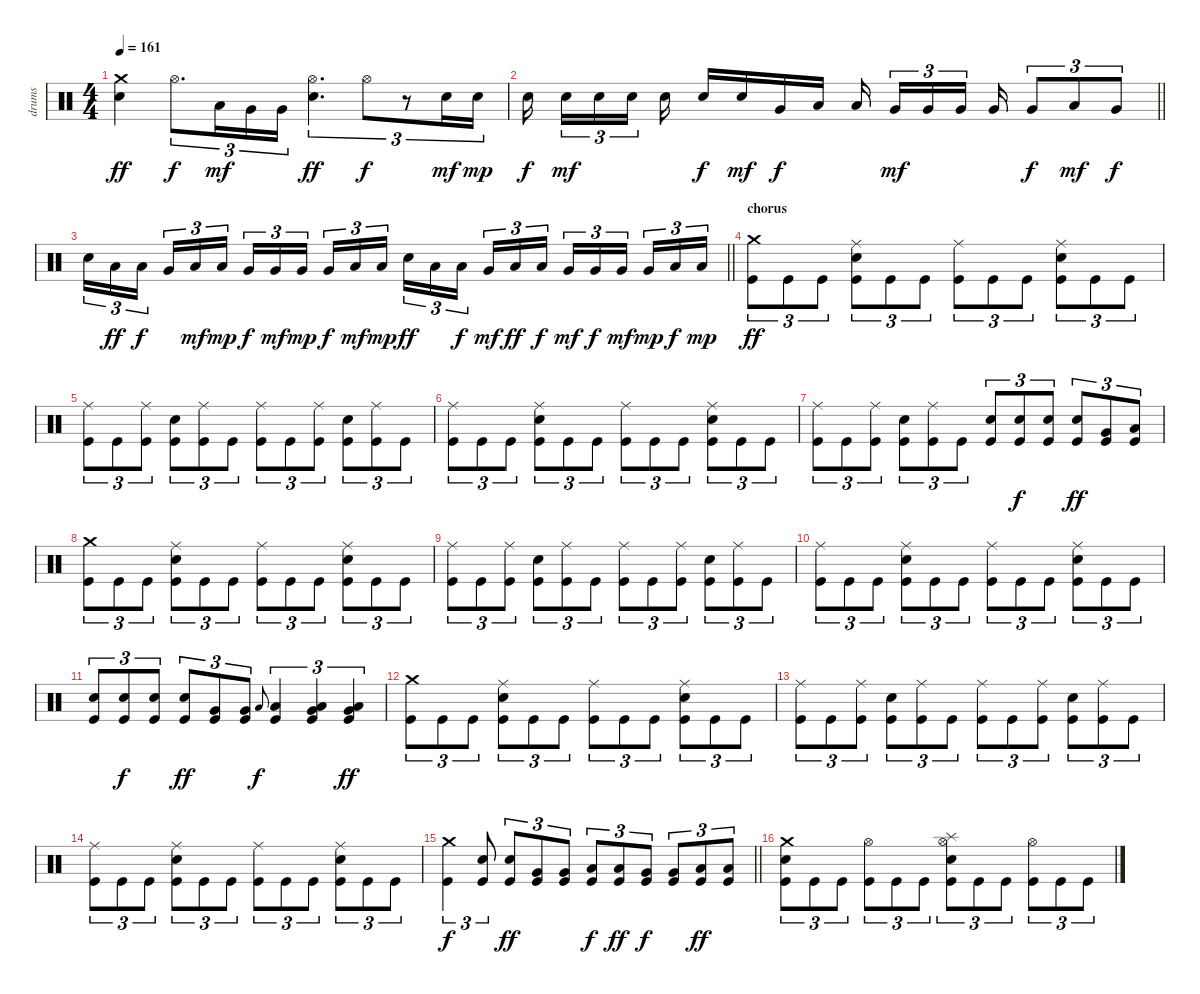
\track ("drums" "drums") {instrument percussion}
\staff {score}
\articulation defaults
\ts (4 4)
\tempo 161
\clef neutral
\ks c
("Crash medium (hit)" "Electric Snare (hit)").4{dy ff} "Hi-Hat (open)".8{d tu (3 2) dy f} "Low Tom (hit)".16{tu (3 2) dy mf} "Very Low Tom (hit)".16{tu (3 2)} "Very Low Tom (hit)".16{tu (3 2)} ("Hi-Hat (open)" "Electric Snare (hit)").4{d tu (3 2) dy ff} "Hi-Hat (open)".8{tu (3 2) dy f} r.8{tu (3 2)} "Electric Snare (hit)".16{tu (3 2) dy mf} "Electric Snare (hit)".16{tu (3 2) dy mp} |
\barLineRight lightlight "Electric Snare (hit)".16{dy f beam splitsecondary} "Electric Snare (hit)".16{tu (3 2) dy mf} "Electric Snare (hit)".16{tu (3 2)} "Electric Snare (hit)".16{tu (3 2) beam splitsecondary} "Electric Snare (hit)".16 "Electric Snare (hit)".16{dy f} "Electric Snare (hit)".16{dy mf} "Very Low Tom (hit)".16{dy f} "Low Floor Tom (hit)".16 "Low Tom (hit)".16{beam splitsecondary} "Very Low Tom (hit)".16{tu (3 2) dy mf} "Very Low Tom (hit)".16{tu (3 2)} "Very Low Tom (hit)".16{tu (3 2) beam splitsecondary} "Very Low Tom (hit)".16 "Very Low Tom (hit)".8{tu (3 2) dy f} "Low Floor Tom (hit)".8{tu (3 2) dy mf} "Very Low Tom (hit)".8{tu (3 2) dy f}
|
\barLineRight lightlight "Electric Snare (hit)".16{tu (3 2)} "Low Tom (hit)".16{tu (3 2) dy ff} "Low Tom (hit)".16{tu (3 2) dy f beam splitsecondary} "Very Low Tom (hit)".16{tu (3 2)} "Low Tom (hit)".16{tu (3 2) dy mf} "Low Tom (hit)".16{tu (3 2) dy mp} "Very Low Tom (hit)".16{tu (3 2) dy f} "Very Low Tom (hit)".16{tu (3 2) dy mf} "Very Low Tom (hit)".16{tu (3 2) dy mp beam splitsecondary} "Very Low Tom (hit)".16{tu (3 2) dy f} "Low Floor Tom (hit)".16{tu (3 2) dy mf} "Low Floor Tom (hit)".16{tu (3 2) dy mp} "Electric Snare (hit)".16{tu (3 2) dy ff} "Low Tom (hit)".16{tu (3 2)} "Low Tom (hit)".16{tu (3 2) dy f beam splitsecondary} "Very Low Tom (hit)".16{tu (3 2) dy mf} "Low Tom (hit)".16{tu (3 2) dy ff} "Low Tom (hit)".16{tu (3 2) dy f} "Very Low Tom (hit)".16{tu (3 2) dy mf} "Very Low Tom (hit)".16{tu (3 2) dy f} "Very Low Tom (hit)".16{tu (3 2) dy mf beam splitsecondary} "Very Low Tom (hit)".16{tu (3 2) dy mp} "Low Floor Tom (hit)".16{tu (3 2) dy f} "Low Floor Tom (hit)".16{tu (3 2) dy mp}
|
\section ("" "chorus")
("Crash medium (hit)" "Kick (hit)").8{tu (3 2) dy ff} "Kick (hit)".8{tu (3 2)} "Kick (hit)".8{tu (3 2)} ("Ride (middle)" "Electric Snare (hit)" "Kick (hit)").8{tu (3 2)} "Kick (hit)".8{tu (3 2)} "Kick (hit)".8{tu (3 2)} ("Ride (middle)" "Kick (hit)").8{tu (3 2)} "Kick (hit)".8{tu (3 2)} "Kick (hit)".8{tu (3 2)} ("Ride (middle)" "Electric Snare (hit)" "Kick (hit)").8{tu (3 2)} "Kick (hit)".8{tu (3 2)} "Kick (hit)".8{tu (3 2)} |
("Ride (middle)" "Kick (hit)").8{tu (3 2)} "Kick (hit)".8{tu (3 2)} ("Ride (middle)" "Kick (hit)").8{tu (3 2)} ("Electric Snare (hit)" "Kick (hit)").8{tu (3 2)} ("Ride (middle)" "Kick (hit)").8{tu (3 2)} "Kick (hit)".8{tu (3 2)} ("Ride (middle)" "Kick (hit)").8{tu (3 2)} "Kick (hit)".8{tu (3 2)} ("Ride (middle)" "Kick (hit)").8{tu (3 2)} ("Electric Snare (hit)" "Kick (hit)").8{tu (3 2)} ("Ride (middle)" "Kick (hit)").8{tu (3 2)} "Kick (hit)".8{tu (3 2)} |
("Ride (middle)" "Kick (hit)").8{tu (3 2)} "Kick (hit)".8{tu (3 2)} "Kick (hit)".8{tu (3 2)} ("Ride (middle)" "Electric Snare (hit)" "Kick (hit)").8{tu (3 2)} "Kick (hit)".8{tu (3 2)} "Kick (hit)".8{tu (3 2)} ("Ride (middle)" "Kick (hit)").8{tu (3 2)} "Kick (hit)".8{tu (3 2)} "Kick (hit)".8{tu (3 2)} ("Ride (middle)" "Electric Snare (hit)" "Kick (hit)").8{tu (3 2)} "Kick (hit)".8{tu (3 2)} "Kick (hit)".8{tu (3 2)} |
("Ride (middle)" "Kick (hit)").8{tu (3 2)} "Kick (hit)".8{tu (3 2)} ("Ride (middle)" "Kick (hit)").8{tu (3 2)} ("Electric Snare (hit)" "Kick (hit)").8{tu (3 2)} ("Ride (middle)" "Kick (hit)").8{tu (3 2)} "Kick (hit)".8{tu (3 2)} ("Electric Snare (hit)" "Kick (hit)").8{tu (3 2)} ("Electric Snare (hit)" "Kick (hit)").8{tu (3 2) dy f} ("Electric Snare (hit)" "Kick (hit)").8{tu (3 2)} ("Electric Snare (hit)" "Kick (hit)").8{tu (3 2) dy ff} ("Very Low Tom (hit)" "Kick (hit)").8{tu (3 2)} ("Low Floor Tom (hit)" "Kick (hit)").8{tu (3 2)} |
("Crash medium (hit)" "Kick (hit)").8{tu (3 2)} "Kick (hit)".8{tu (3 2)} "Kick (hit)".8{tu (3 2)} ("Ride (middle)" "Electric Snare (hit)" "Kick (hit)").8{tu (3 2)} "Kick (hit)".8{tu (3 2)} "Kick (hit)".8{tu (3 2)} ("Ride (middle)" "Kick (hit)").8{tu (3 2)} "Kick (hit)".8{tu (3 2)} "Kick (hit)".8{tu (3 2)} ("Ride (middle)" "Electric Snare (hit)" "Kick (hit)").8{tu (3 2)} "Kick (hit)".8{tu (3 2)} "Kick (hit)".8{tu (3 2)} |
("Ride (middle)" "Kick (hit)").8{tu (3 2)} "Kick (hit)".8{tu (3 2)} ("Ride (middle)" "Kick (hit)").8{tu (3 2)} ("Electric Snare (hit)" "Kick (hit)").8{tu (3 2)} ("Ride (middle)" "Kick (hit)").8{tu (3 2)} "Kick (hit)".8{tu (3 2)} ("Ride (middle)" "Kick (hit)").8{tu (3 2)} "Kick (hit)".8{tu (3 2)} ("Ride (middle)" "Kick (hit)").8{tu (3 2)} ("Electric Snare (hit)" "Kick (hit)").8{tu (3 2)} ("Ride (middle)" "Kick (hit)").8{tu (3 2)} "Kick (hit)".8{tu (3 2)} |
("Ride (middle)" "Kick (hit)").8{tu (3 2)} "Kick (hit)".8{tu (3 2)} "Kick (hit)".8{tu (3 2)} ("Ride (middle)" "Electric Snare (hit)" "Kick (hit)").8{tu (3 2)} "Kick (hit)".8{tu (3 2)} "Kick (hit)".8{tu (3 2)} ("Ride (middle)" "Kick (hit)").8{tu (3 2)} "Kick (hit)".8{tu (3 2)} "Kick (hit)".8{tu (3 2)} ("Ride (middle)" "Electric Snare (hit)" "Kick (hit)").8{tu (3 2)} "Kick (hit)".8{tu (3 2)} "Kick (hit)".8{tu (3 2)} |
("Electric Snare (hit)" "Kick (hit)").8{tu (3 2)} ("Electric Snare (hit)" "Kick (hit)").8{tu (3 2) dy f} ("Electric Snare (hit)" "Kick (hit)").8{tu (3 2)} ("Electric Snare (hit)" "Kick (hit)").8{tu (3 2) dy ff} ("Very Low Tom (hit)" "Kick (hit)").8{tu (3 2)} ("Very Low Tom (hit)" "Kick (hit)").8{tu (3 2)} "Low Floor Tom (hit)".8{gr onbeat dy f} ("Low Floor Tom (hit)" "Kick (hit)").4{tu (3 2)} ("Very Low Tom (hit)" "Low Floor Tom (hit)" "Kick (hit)").4{tu (3 2)} ("Very Low Tom (hit)" "Low Floor Tom (hit)" "Kick (hit)").4{tu (3 2) dy ff} |
("Crash medium (hit)" "Kick (hit)").8{tu (3 2)} "Kick (hit)".8{tu (3 2)} "Kick (hit)".8{tu (3 2)} ("Ride (middle)" "Electric Snare (hit)" "Kick (hit)").8{tu (3 2)} "Kick (hit)".8{tu (3 2)} "Kick (hit)".8{tu (3 2)} ("Ride (middle)" "Kick (hit)").8{tu (3 2)} "Kick (hit)".8{tu (3 2)} "Kick (hit)".8{tu (3 2)} ("Ride (middle)" "Electric Snare (hit)" "Kick (hit)").8{tu (3 2)} "Kick (hit)".8{tu (3 2)} "Kick (hit)".8{tu (3 2)} |
("Ride (middle)" "Kick (hit)").8{tu (3 2)} "Kick (hit)".8{tu (3 2)} ("Ride (middle)" "Kick (hit)").8{tu (3 2)} ("Electric Snare (hit)" "Kick (hit)").8{tu (3 2)} ("Ride (middle)" "Kick (hit)").8{tu (3 2)} "Kick (hit)".8{tu (3 2)} ("Ride (middle)" "Kick (hit)").8{tu (3 2)} "Kick (hit)".8{tu (3 2)} ("Ride (middle)" "Kick (hit)").8{tu (3 2)} ("Electric Snare (hit)" "Kick (hit)").8{tu (3 2)} ("Ride (middle)" "Kick (hit)").8{tu (3 2)} "Kick (hit)".8{tu (3 2)} |
("Ride (middle)" "Kick (hit)").8{tu (3 2)} "Kick (hit)".8{tu (3 2)} "Kick (hit)".8{tu (3 2)} ("Ride (middle)" "Electric Snare (hit)" "Kick (hit)").8{tu (3 2)} "Kick (hit)".8{tu (3 2)} "Kick (hit)".8{tu (3 2)} ("Ride (middle)" "Kick (hit)").8{tu (3 2)} "Kick (hit)".8{tu (3 2)} "Kick (hit)".8{tu (3 2)} ("Ride (middle)" "Electric Snare (hit)" "Kick (hit)").8{tu (3 2)} "Kick (hit)".8{tu (3 2)} "Kick (hit)".8{tu (3 2)} |
\barLineRight lightlight
("Crash medium (hit)" "Kick (hit)").4{tu (3 2) dy f} ("Electric Snare (hit)" "Kick (hit)").8{tu (3 2)} ("Electric Snare (hit)" "Kick (hit)").8{tu (3 2) dy ff} ("Very Low Tom (hit)" "Kick (hit)").8{tu (3 2)} ("Very Low Tom (hit)" "Kick (hit)").8{tu (3 2)} ("Low Tom (hit)" "Kick (hit)").8{tu (3 2) dy f} ("Low Tom (hit)" "Kick (hit)").8{tu (3 2) dy ff} ("Very Low Tom (hit)" "Kick (hit)").8{tu (3 2) dy f} ("Very Low Tom (hit)" "Kick (hit)").8{tu (3 2)} ("Low Floor Tom (hit)" "Kick (hit)").8{tu (3 2) dy ff} ("Low Floor Tom (hit)" "Kick (hit)").8{tu (3 2)} |
("Crash medium (hit)" "Electric Snare (hit)" "Kick (hit)").8{tu (3 2)} "Kick (hit)".8{tu (3 2)} "Kick (hit)".8{tu (3 2)} ("Hi-Hat (open)" "Kick (hit)").8{tu (3 2)} "Kick (hit)".8{tu (3 2)} "Kick (hit)".8{tu (3 2)} ("Splash (hit)" "Hi-Hat (open)" "Electric Snare (hit)" "Kick (hit)").8{tu (3 2)} "Kick (hit)".8{tu (3 2)} "Kick (hit)".8{tu (3 2)} ("Hi-Hat (open)" "Kick (hit)").8{tu (3 2)} "Kick (hit)".8{tu (3 2)} "Kick (hit)".8{tu (3 2)}
